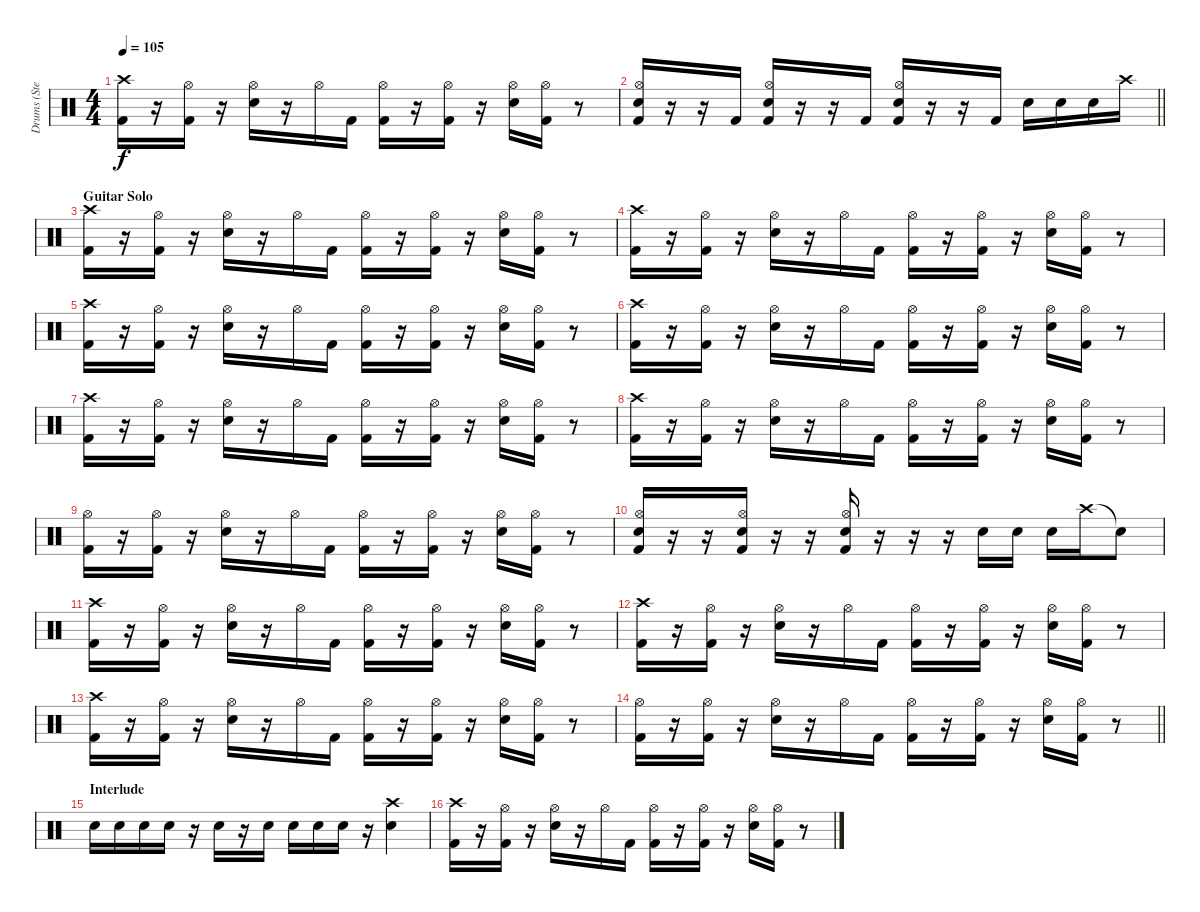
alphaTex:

\track ("Drums (Steven)" "Drums (Ste") {instrument percussion}
\staff {score}
\articulation defaults
\ts (4 4)
\tempo 105
\clef neutral
\ks c
("Crash high (hit)" "Kick (hit) 2").16{dy f} r.16 ("Hi-Hat (open)" "Kick (hit) 2").16 r.16 ("Hi-Hat (open)" "Snare (hit) 2").16 r.16 "Hi-Hat (open)".16 "Kick (hit) 2".16 ("Kick (hit) 2" "Hi-Hat (open)").16 r.16 ("Kick (hit) 2" "Hi-Hat (open)").16 r.16 ("Hi-Hat (open)" "Snare (hit) 2").16 ("Kick (hit) 2" "Hi-Hat (open)").16 r.8 |
\barLineRight lightlight
("Kick (hit) 2" "Snare (hit) 2" "Hi-Hat (open)").16 r.16 r.16 "Kick (hit) 2".16 ("Kick (hit) 2" "Snare (hit) 2" "Hi-Hat (open)").16 r.16 r.16 "Kick (hit) 2".16 ("Kick (hit) 2" "Snare (hit) 2" "Hi-Hat (open)").16 r.16 r.16 "Kick (hit) 2".16 "Snare (hit) 2".16 "Snare (hit) 2".16 "Snare (hit) 2".16 "Crash high (hit)".16 |
\section ("" "Guitar Solo")
("Crash high (hit)" "Kick (hit) 2").16 r.16 ("Hi-Hat (open)" "Kick (hit) 2").16 r.16 ("Hi-Hat (open)" "Snare (hit) 2").16 r.16 "Hi-Hat (open)".16 "Kick (hit) 2".16 ("Kick (hit) 2" "Hi-Hat (open)").16 r.16 ("Kick (hit) 2" "Hi-Hat (open)").16 r.16 ("Hi-Hat (open)" "Snare (hit) 2").16 ("Kick (hit) 2" "Hi-Hat (open)").16 r.8 |
("Crash high (hit)" "Kick (hit) 2").16 r.16 ("Hi-Hat (open)" "Kick (hit) 2").16 r.16 ("Hi-Hat (open)" "Snare (hit) 2").16 r.16 "Hi-Hat (open)".16 "Kick (hit) 2".16 ("Kick (hit) 2" "Hi-Hat (open)").16 r.16 ("Kick (hit) 2" "Hi-Hat (open)").16 r.16 ("Hi-Hat (open)" "Snare (hit) 2").16 ("Kick (hit) 2" "Hi-Hat (open)").16 r.8 |
("Crash high (hit)" "Kick (hit) 2").16 r.16 ("Hi-Hat (open)" "Kick (hit) 2").16 r.16 ("Hi-Hat (open)" "Snare (hit) 2").16 r.16 "Hi-Hat (open)".16 "Kick (hit) 2".16 ("Kick (hit) 2" "Hi-Hat (open)").16 r.16 ("Kick (hit) 2" "Hi-Hat (open)").16 r.16 ("Hi-Hat (open)" "Snare (hit) 2").16 ("Kick (hit) 2" "Hi-Hat (open)").16 r.8 |
("Crash high (hit)" "Kick (hit) 2").16 r.16 ("Hi-Hat (open)" "Kick (hit) 2").16 r.16 ("Hi-Hat (open)" "Snare (hit) 2").16 r.16 "Hi-Hat (open)".16 "Kick (hit) 2".16 ("Kick (hit) 2" "Hi-Hat (open)").16 r.16 ("Kick (hit) 2" "Hi-Hat (open)").16 r.16 ("Hi-Hat (open)" "Snare (hit) 2").16 ("Kick (hit) 2" "Hi-Hat (open)").16 r.8 |
("Crash high (hit)" "Kick (hit) 2").16 r.16 ("Hi-Hat (open)" "Kick (hit) 2").16 r.16 ("Hi-Hat (open)" "Snare (hit) 2").16 r.16 "Hi-Hat (open)".16 "Kick (hit) 2".16 ("Kick (hit) 2" "Hi-Hat (open)").16 r.16 ("Kick (hit) 2" "Hi-Hat (open)").16 r.16 ("Hi-Hat (open)" "Snare (hit) 2").16 ("Kick (hit) 2" "Hi-Hat (open)").16 r.8 |
("Crash high (hit)" "Kick (hit) 2").16 r.16 ("Hi-Hat (open)" "Kick (hit) 2").16 r.16 ("Hi-Hat (open)" "Snare (hit) 2").16 r.16 "Hi-Hat (open)".16 "Kick (hit) 2".16 ("Kick (hit) 2" "Hi-Hat (open)").16 r.16 ("Kick (hit) 2" "Hi-Hat (open)").16 r.16 ("Hi-Hat (open)" "Snare (hit) 2").16 ("Kick (hit) 2" "Hi-Hat (open)").16 r.8 |
("Hi-Hat (open)" "Kick (hit) 2").16 r.16 ("Hi-Hat (open)" "Kick (hit) 2").16 r.16 ("Hi-Hat (open)" "Snare (hit) 2").16 r.16 "Hi-Hat (open)".16 "Kick (hit) 2".16 ("Kick (hit) 2" "Hi-Hat (open)").16 r.16 ("Kick (hit) 2" "Hi-Hat (open)").16 r.16 ("Hi-Hat (open)" "Snare (hit) 2").16 ("Kick (hit) 2" "Hi-Hat (open)").16 r.8 |
("Kick (hit) 2" "Snare (hit) 2" "Hi-Hat (open)").16 r.16 r.16 ("Kick (hit) 2" "Snare (hit) 2" "Hi-Hat (open)").16 r.16 r.16 ("Kick (hit) 2" "Snare (hit) 2" "Hi-Hat (open)").16 r.16 r.16 r.16 "Snare (hit) 2".16 "Snare (hit) 2".16 "Snare (hit) 2".16 "Crash high (hit)".16 "Snare (hit)"{t}.8 |
("Crash high (hit)" "Kick (hit) 2").16 r.16 ("Hi-Hat (open)" "Kick (hit) 2").16 r.16 ("Hi-Hat (open)" "Snare (hit) 2").16 r.16 "Hi-Hat (open)".16 "Kick (hit) 2".16 ("Kick (hit) 2" "Hi-Hat (open)").16 r.16 ("Kick (hit) 2" "Hi-Hat (open)").16 r.16 ("Hi-Hat (open)" "Snare (hit) 2").16 ("Kick (hit) 2" "Hi-Hat (open)").16 r.8 |
("Crash high (hit)" "Kick (hit) 2").16 r.16 ("Hi-Hat (open)" "Kick (hit) 2").16 r.16 ("Hi-Hat (open)" "Snare (hit) 2").16 r.16 "Hi-Hat (open)".16 "Kick (hit) 2".16 ("Kick (hit) 2" "Hi-Hat (open)").16 r.16 ("Kick (hit) 2" "Hi-Hat (open)").16 r.16 ("Hi-Hat (open)" "Snare (hit) 2").16 ("Kick (hit) 2" "Hi-Hat (open)").16 r.8 |
("Crash high (hit)" "Kick (hit) 2").16 r.16 ("Hi-Hat (open)" "Kick (hit) 2").16 r.16 ("Hi-Hat (open)" "Snare (hit) 2").16 r.16 "Hi-Hat (open)".16 "Kick (hit) 2".16 ("Kick (hit) 2" "Hi-Hat (open)").16 r.16 ("Kick (hit) 2" "Hi-Hat (open)").16 r.16 ("Hi-Hat (open)" "Snare (hit) 2").16 ("Kick (hit) 2" "Hi-Hat (open)").16 r.8 |
\barLineRight lightlight
("Hi-Hat (open)" "Kick (hit) 2").16 r.16 ("Hi-Hat (open)" "Kick (hit) 2").16 r.16 ("Hi-Hat (open)" "Snare (hit) 2").16 r.16 "Hi-Hat (open)".16 "Kick (hit) 2".16 ("Kick (hit) 2" "Hi-Hat (open)").16 r.16 ("Kick (hit) 2" "Hi-Hat (open)").16 r.16 ("Hi-Hat (open)" "Snare (hit) 2").16 ("Kick (hit) 2" "Hi-Hat (open)").16 r.8 |
\section ("" "Interlude")
"Snare (hit) 2".16 "Snare (hit) 2".16 "Snare (hit) 2".16 "Snare (hit) 2".16 r.16 "Snare (hit) 2".16 r.16 "Snare (hit) 2".16 "Snare (hit) 2".16 "Snare (hit) 2".16 "Snare (hit) 2".16 r.16 ("Snare (hit) 2" "Crash high (hit)").4 |
("Crash high (hit)" "Kick (hit) 2").16 r.16 ("Hi-Hat (open)" "Kick (hit) 2").16 r.16 ("Hi-Hat (open)" "Snare (hit) 2").16 r.16 "Hi-Hat (open)".16 "Kick (hit) 2".16 ("Kick (hit) 2" "Hi-Hat (open)").16 r.16 ("Kick (hit) 2" "Hi-Hat (open)").16 r.16 ("Hi-Hat (open)" "Snare (hit) 2").16 ("Kick (hit) 2" "Hi-Hat (open)").16 r.8
